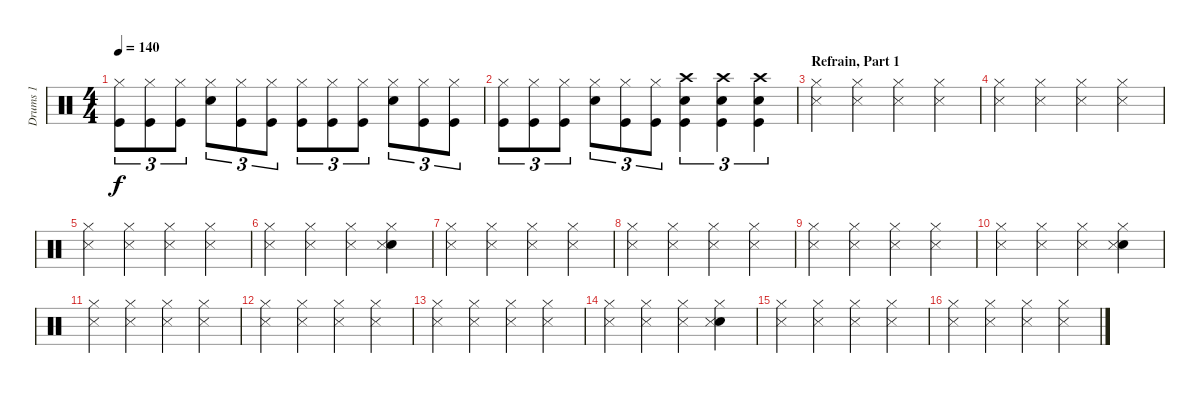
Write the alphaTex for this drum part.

\track ("Drums 1" "Drums 1") {instrument percussion}
\staff {score}
\articulation defaults
\ts (4 4)
\tempo 140
\clef neutral
\ks c
("Hi-Hat (closed)" "Kick (hit)").8{tu (3 2) dy f} ("Hi-Hat (closed)" "Kick (hit)").8{tu (3 2)} ("Hi-Hat (closed)" "Kick (hit)").8{tu (3 2)} ("Hi-Hat (closed)" "Snare (hit) 2").8{tu (3 2)} ("Hi-Hat (closed)" "Kick (hit)").8{tu (3 2)} ("Hi-Hat (closed)" "Kick (hit)").8{tu (3 2)} ("Hi-Hat (closed)" "Kick (hit)").8{tu (3 2)} ("Hi-Hat (closed)" "Kick (hit)").8{tu (3 2)} ("Hi-Hat (closed)" "Kick (hit)").8{tu (3 2)} ("Hi-Hat (closed)" "Snare (hit) 2").8{tu (3 2)} ("Hi-Hat (closed)" "Kick (hit)").8{tu (3 2)} ("Hi-Hat (closed)" "Kick (hit)").8{tu (3 2)} |
("Hi-Hat (closed)" "Kick (hit)").8{tu (3 2)} ("Hi-Hat (closed)" "Kick (hit)").8{tu (3 2)} ("Hi-Hat (closed)" "Kick (hit)").8{tu (3 2)} ("Hi-Hat (closed)" "Snare (hit) 2").8{tu (3 2)} ("Hi-Hat (closed)" "Kick (hit)").8{tu (3 2)} ("Hi-Hat (closed)" "Kick (hit)").8{tu (3 2)} ("Snare (hit) 2" "Crash high (hit)" "Kick (hit)").4{tu (3 2)} ("Snare (hit) 2" "Crash high (hit)" "Kick (hit)").4{tu (3 2)} ("Snare (hit) 2" "Crash high (hit)" "Kick (hit)").4{tu (3 2)} |
\section ("" "Refrain, Part 1")
("Hi-Hat (closed)" "Snare (side stick) 3").4 ("Hi-Hat (closed)" "Snare (side stick) 3").4 ("Hi-Hat (closed)" "Snare (side stick) 3").4 ("Hi-Hat (closed)" "Snare (side stick) 3").4 |
("Hi-Hat (closed)" "Snare (side stick) 3").4 ("Hi-Hat (closed)" "Snare (side stick) 3").4 ("Hi-Hat (closed)" "Snare (side stick) 3").4 ("Hi-Hat (closed)" "Snare (side stick) 3").4 |
("Hi-Hat (closed)" "Snare (side stick) 3").4 ("Hi-Hat (closed)" "Snare (side stick) 3").4 ("Hi-Hat (closed)" "Snare (side stick) 3").4 ("Hi-Hat (closed)" "Snare (side stick) 3").4 |
("Hi-Hat (closed)" "Snare (side stick) 3").4 ("Hi-Hat (closed)" "Snare (side stick) 3").4 ("Hi-Hat (closed)" "Snare (side stick) 3").4 ("Hi-Hat (closed)" "Snare (hit) 2" "Snare (side stick) 3").4 |
("Hi-Hat (closed)" "Snare (side stick) 3").4 ("Hi-Hat (closed)" "Snare (side stick) 3").4 ("Hi-Hat (closed)" "Snare (side stick) 3").4 ("Hi-Hat (closed)" "Snare (side stick) 3").4 |
("Hi-Hat (closed)" "Snare (side stick) 3").4 ("Hi-Hat (closed)" "Snare (side stick) 3").4 ("Hi-Hat (closed)" "Snare (side stick) 3").4 ("Hi-Hat (closed)" "Snare (side stick) 3").4 |
("Hi-Hat (closed)" "Snare (side stick) 3").4 ("Hi-Hat (closed)" "Snare (side stick) 3").4 ("Hi-Hat (closed)" "Snare (side stick) 3").4 ("Hi-Hat (closed)" "Snare (side stick) 3").4 |
("Hi-Hat (closed)" "Snare (side stick) 3").4 ("Hi-Hat (closed)" "Snare (side stick) 3").4 ("Hi-Hat (closed)" "Snare (side stick) 3").4 ("Hi-Hat (closed)" "Snare (hit) 2" "Snare (side stick) 3").4 |
("Hi-Hat (closed)" "Snare (side stick) 3").4 ("Hi-Hat (closed)" "Snare (side stick) 3").4 ("Hi-Hat (closed)" "Snare (side stick) 3").4 ("Hi-Hat (closed)" "Snare (side stick) 3").4 |
("Hi-Hat (closed)" "Snare (side stick) 3").4 ("Hi-Hat (closed)" "Snare (side stick) 3").4 ("Hi-Hat (closed)" "Snare (side stick) 3").4 ("Hi-Hat (closed)" "Snare (side stick) 3").4 |
("Hi-Hat (closed)" "Snare (side stick) 3").4 ("Hi-Hat (closed)" "Snare (side stick) 3").4 ("Hi-Hat (closed)" "Snare (side stick) 3").4 ("Hi-Hat (closed)" "Snare (side stick) 3").4 |
("Hi-Hat (closed)" "Snare (side stick) 3").4 ("Hi-Hat (closed)" "Snare (side stick) 3").4 ("Hi-Hat (closed)" "Snare (side stick) 3").4 ("Hi-Hat (closed)" "Snare (hit) 2" "Snare (side stick) 3").4 |
("Hi-Hat (closed)" "Snare (side stick) 3").4 ("Hi-Hat (closed)" "Snare (side stick) 3").4 ("Hi-Hat (closed)" "Snare (side stick) 3").4 ("Hi-Hat (closed)" "Snare (side stick) 3").4 |
("Hi-Hat (closed)" "Snare (side stick) 3").4 ("Hi-Hat (closed)" "Snare (side stick) 3").4 ("Hi-Hat (closed)" "Snare (side stick) 3").4 ("Hi-Hat (closed)" "Snare (side stick) 3").4
